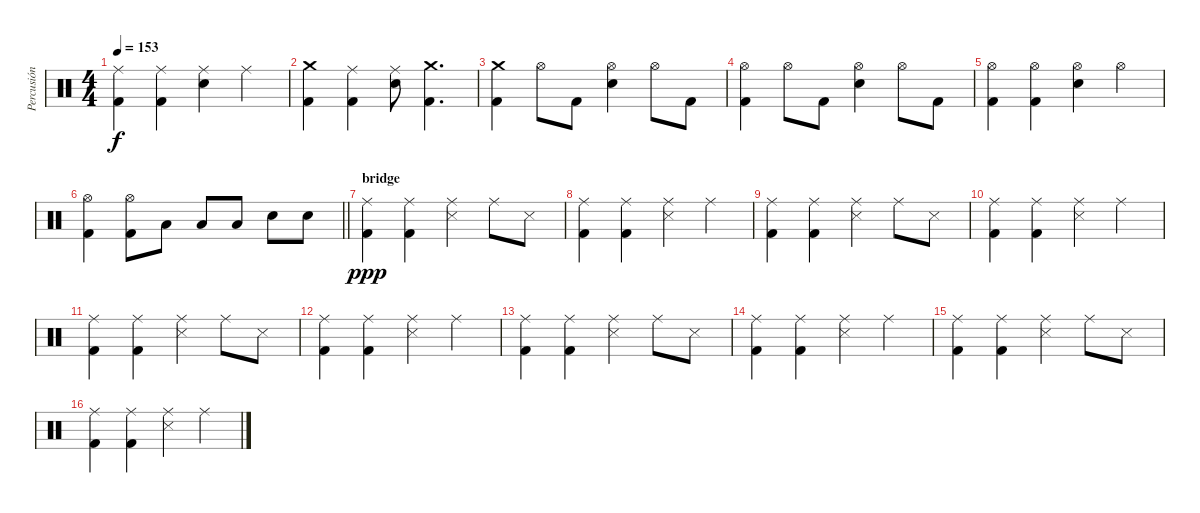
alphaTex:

\track ("Percusión" "Percusión") {instrument percussion}
\staff {score}
\articulation defaults
\ts (4 4)
\tempo 153
\clef neutral
\ks c
("Ride (middle)" "Kick (hit) 2").4{dy f} ("Ride (middle)" "Kick (hit) 2").4 ("Ride (middle)" "Electric Snare (hit)").4 "Ride (middle)".4 |
("Crash medium (hit)" "Kick (hit) 2").4 ("Ride (middle)" "Kick (hit) 2").4 ("Ride (middle)" "Electric Snare (hit)").8 ("Crash medium (hit)" "Kick (hit) 2").4{d} |
("Crash medium (hit)" "Kick (hit) 2").4 "Hi-Hat (open)".8 "Kick (hit) 2".8 ("Hi-Hat (open)" "Electric Snare (hit)").4 "Hi-Hat (open)".8 "Kick (hit) 2".8 |
("Hi-Hat (open)" "Kick (hit) 2").4 "Hi-Hat (open)".8 "Kick (hit) 2".8 ("Hi-Hat (open)" "Electric Snare (hit)").4 "Hi-Hat (open)".8 "Kick (hit) 2".8 |
("Hi-Hat (open)" "Kick (hit) 2").4 ("Hi-Hat (open)" "Kick (hit) 2").4 ("Hi-Hat (open)" "Electric Snare (hit)").4 "Hi-Hat (open)".4 |
\barLineRight lightlight
("Hi-Hat (open)" "Kick (hit) 2").4 ("Hi-Hat (open)" "Kick (hit) 2").8 "Low Floor Tom (hit)".8 "Low Tom (hit)".8 "Low Tom (hit)".8 "Electric Snare (hit)".8 "Electric Snare (hit)".8 |
\section ("" "bridge")
("Ride (middle)" "Kick (hit) 2").4{dy ppp} ("Ride (middle)" "Kick (hit) 2").4 ("Ride (middle)" "Snare (side stick) 3").4 "Ride (middle)".8 "Snare (side stick) 3".8 |
("Ride (middle)" "Kick (hit) 2").4 ("Ride (middle)" "Kick (hit) 2").4 ("Ride (middle)" "Snare (side stick) 3").4 "Ride (middle)".4 |
("Ride (middle)" "Kick (hit) 2").4 ("Ride (middle)" "Kick (hit) 2").4 ("Ride (middle)" "Snare (side stick) 3").4 "Ride (middle)".8 "Snare (side stick) 3".8 |
("Ride (middle)" "Kick (hit) 2").4 ("Ride (middle)" "Kick (hit) 2").4 ("Ride (middle)" "Snare (side stick) 3").4 "Ride (middle)".4 |
("Ride (middle)" "Kick (hit) 2").4 ("Ride (middle)" "Kick (hit) 2").4 ("Ride (middle)" "Snare (side stick) 3").4 "Ride (middle)".8 "Snare (side stick) 3".8 |
("Ride (middle)" "Kick (hit) 2").4 ("Ride (middle)" "Kick (hit) 2").4 ("Ride (middle)" "Snare (side stick) 3").4 "Ride (middle)".4 |
("Ride (middle)" "Kick (hit) 2").4 ("Ride (middle)" "Kick (hit) 2").4 ("Ride (middle)" "Snare (side stick) 3").4 "Ride (middle)".8 "Snare (side stick) 3".8 |
("Ride (middle)" "Kick (hit) 2").4 ("Ride (middle)" "Kick (hit) 2").4 ("Ride (middle)" "Snare (side stick) 3").4 "Ride (middle)".4 |
("Ride (middle)" "Kick (hit) 2").4 ("Ride (middle)" "Kick (hit) 2").4 ("Ride (middle)" "Snare (side stick) 3").4 "Ride (middle)".8 "Snare (side stick) 3".8 |
("Ride (middle)" "Kick (hit) 2").4 ("Ride (middle)" "Kick (hit) 2").4 ("Ride (middle)" "Snare (side stick) 3").4 "Ride (middle)".4
